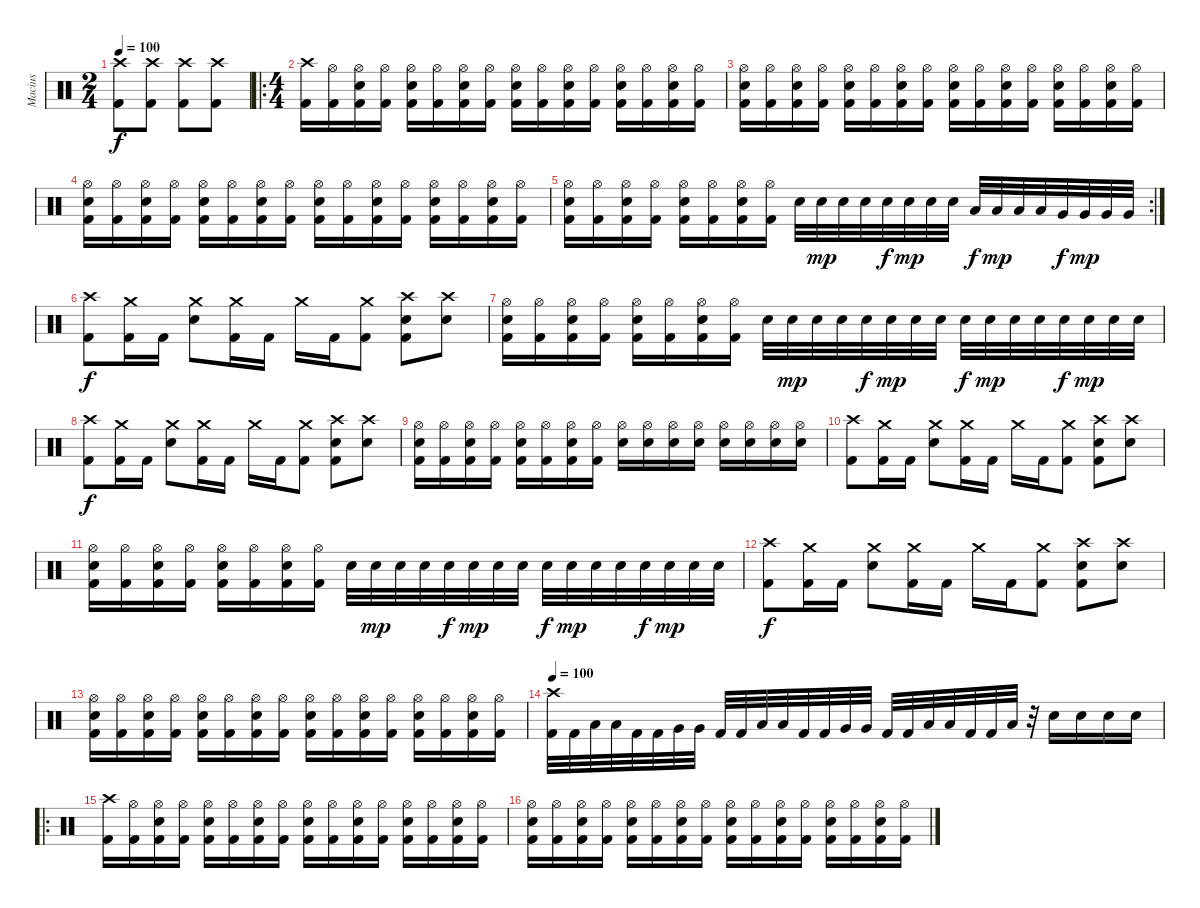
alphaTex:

\track ("Macius" "Macius") {instrument percussion}
\staff {score}
\articulation defaults
\ts (2 4)
\tempo 100
\clef neutral
\ks c
("Crash high (hit)" "Kick (hit) 2").8{dy f} ("Crash high (hit)" "Kick (hit) 2").8 ("Crash high (hit)" "Kick (hit) 2").8 ("Crash high (hit)" "Kick (hit) 2").8 |
\ro
\ts (4 4)
("Crash high (hit)" "Kick (hit) 2").16 ("Hi-Hat (open)" "Kick (hit) 2").16 ("Hi-Hat (open)" "Electric Snare (hit)" "Kick (hit) 2").16 ("Hi-Hat (open)" "Kick (hit) 2").16 ("Hi-Hat (open)" "Electric Snare (hit)" "Kick (hit) 2").16 ("Hi-Hat (open)" "Kick (hit) 2").16 ("Hi-Hat (open)" "Electric Snare (hit)" "Kick (hit) 2").16 ("Hi-Hat (open)" "Kick (hit) 2").16 ("Hi-Hat (open)" "Electric Snare (hit)" "Kick (hit) 2").16 ("Hi-Hat (open)" "Kick (hit) 2").16 ("Hi-Hat (open)" "Electric Snare (hit)" "Kick (hit) 2").16 ("Hi-Hat (open)" "Kick (hit) 2").16 ("Hi-Hat (open)" "Electric Snare (hit)" "Kick (hit) 2").16 ("Hi-Hat (open)" "Kick (hit) 2").16 ("Hi-Hat (open)" "Electric Snare (hit)" "Kick (hit) 2").16 ("Hi-Hat (open)" "Kick (hit) 2").16 |
("Hi-Hat (open)" "Electric Snare (hit)" "Kick (hit) 2").16 ("Hi-Hat (open)" "Kick (hit) 2").16 ("Hi-Hat (open)" "Electric Snare (hit)" "Kick (hit) 2").16 ("Hi-Hat (open)" "Kick (hit) 2").16 ("Hi-Hat (open)" "Electric Snare (hit)" "Kick (hit) 2").16 ("Hi-Hat (open)" "Kick (hit) 2").16 ("Hi-Hat (open)" "Electric Snare (hit)" "Kick (hit) 2").16 ("Hi-Hat (open)" "Kick (hit) 2").16 ("Hi-Hat (open)" "Electric Snare (hit)" "Kick (hit) 2").16 ("Hi-Hat (open)" "Kick (hit) 2").16 ("Hi-Hat (open)" "Electric Snare (hit)" "Kick (hit) 2").16 ("Hi-Hat (open)" "Kick (hit) 2").16 ("Hi-Hat (open)" "Electric Snare (hit)" "Kick (hit) 2").16 ("Hi-Hat (open)" "Kick (hit) 2").16 ("Hi-Hat (open)" "Electric Snare (hit)" "Kick (hit) 2").16 ("Hi-Hat (open)" "Kick (hit) 2").16 |
("Hi-Hat (open)" "Electric Snare (hit)" "Kick (hit) 2").16 ("Hi-Hat (open)" "Kick (hit) 2").16 ("Hi-Hat (open)" "Electric Snare (hit)" "Kick (hit) 2").16 ("Hi-Hat (open)" "Kick (hit) 2").16 ("Hi-Hat (open)" "Electric Snare (hit)" "Kick (hit) 2").16 ("Hi-Hat (open)" "Kick (hit) 2").16 ("Hi-Hat (open)" "Electric Snare (hit)" "Kick (hit) 2").16 ("Hi-Hat (open)" "Kick (hit) 2").16 ("Hi-Hat (open)" "Electric Snare (hit)" "Kick (hit) 2").16 ("Hi-Hat (open)" "Kick (hit) 2").16 ("Hi-Hat (open)" "Electric Snare (hit)" "Kick (hit) 2").16 ("Hi-Hat (open)" "Kick (hit) 2").16 ("Hi-Hat (open)" "Electric Snare (hit)" "Kick (hit) 2").16 ("Hi-Hat (open)" "Kick (hit) 2").16 ("Hi-Hat (open)" "Electric Snare (hit)" "Kick (hit) 2").16 ("Hi-Hat (open)" "Kick (hit) 2").16 |
\rc 2
("Hi-Hat (open)" "Electric Snare (hit)" "Kick (hit) 2").16 ("Hi-Hat (open)" "Kick (hit) 2").16 ("Hi-Hat (open)" "Electric Snare (hit)" "Kick (hit) 2").16 ("Hi-Hat (open)" "Kick (hit) 2").16 ("Hi-Hat (open)" "Electric Snare (hit)" "Kick (hit) 2").16 ("Hi-Hat (open)" "Kick (hit) 2").16 ("Hi-Hat (open)" "Electric Snare (hit)" "Kick (hit) 2").16 ("Hi-Hat (open)" "Kick (hit) 2").16 "Electric Snare (hit)".32 "Electric Snare (hit)".32{dy mp} "Electric Snare (hit)".32 "Electric Snare (hit)".32 "Electric Snare (hit)".32{dy f} "Electric Snare (hit)".32{dy mp} "Electric Snare (hit)".32 "Electric Snare (hit)".32 "Low Tom (hit)".32{dy f} "Low Tom (hit)".32{dy mp} "Low Tom (hit)".32 "Low Tom (hit)".32 "Very Low Tom (hit)".32{dy f} "Very Low Tom (hit)".32{dy mp} "Very Low Tom (hit)".32 "Very Low Tom (hit)".32 |
("Crash high (hit)" "Kick (hit) 2").8{dy f} ("Crash medium (hit)" "Kick (hit) 2").16 "Kick (hit) 2".16 ("Crash medium (hit)" "Electric Snare (hit)").8 ("Crash medium (hit)" "Kick (hit) 2").16 "Kick (hit) 2".16 "Crash medium (hit)".16 "Kick (hit) 2".16 ("Crash medium (hit)" "Kick (hit) 2").8 ("Crash high (hit)" "Electric Snare (hit)" "Kick (hit) 2").8 ("Crash high (hit)" "Electric Snare (hit)").8 |
("Hi-Hat (open)" "Electric Snare (hit)" "Kick (hit) 2").16 ("Hi-Hat (open)" "Kick (hit) 2").16 ("Hi-Hat (open)" "Electric Snare (hit)" "Kick (hit) 2").16 ("Hi-Hat (open)" "Kick (hit) 2").16 ("Hi-Hat (open)" "Electric Snare (hit)" "Kick (hit) 2").16 ("Hi-Hat (open)" "Kick (hit) 2").16 ("Hi-Hat (open)" "Electric Snare (hit)" "Kick (hit) 2").16 ("Hi-Hat (open)" "Kick (hit) 2").16 "Electric Snare (hit)".32 "Electric Snare (hit)".32{dy mp} "Electric Snare (hit)".32 "Electric Snare (hit)".32 "Electric Snare (hit)".32{dy f} "Electric Snare (hit)".32{dy mp} "Electric Snare (hit)".32 "Electric Snare (hit)".32 "Electric Snare (hit)".32{dy f} "Electric Snare (hit)".32{dy mp} "Electric Snare (hit)".32 "Electric Snare (hit)".32 "Electric Snare (hit)".32{dy f} "Electric Snare (hit)".32{dy mp} "Electric Snare (hit)".32 "Electric Snare (hit)".32 |
("Crash high (hit)" "Kick (hit) 2").8{dy f} ("Crash medium (hit)" "Kick (hit) 2").16 "Kick (hit) 2".16 ("Crash medium (hit)" "Electric Snare (hit)").8 ("Crash medium (hit)" "Kick (hit) 2").16 "Kick (hit) 2".16 "Crash medium (hit)".16 "Kick (hit) 2".16 ("Crash medium (hit)" "Kick (hit) 2").8 ("Crash high (hit)" "Electric Snare (hit)" "Kick (hit) 2").8 ("Crash high (hit)" "Electric Snare (hit)").8 |
("Hi-Hat (open)" "Electric Snare (hit)" "Kick (hit) 2").16 ("Hi-Hat (open)" "Kick (hit) 2").16 ("Hi-Hat (open)" "Electric Snare (hit)" "Kick (hit) 2").16 ("Hi-Hat (open)" "Kick (hit) 2").16 ("Hi-Hat (open)" "Electric Snare (hit)" "Kick (hit) 2").16 ("Hi-Hat (open)" "Kick (hit) 2").16 ("Hi-Hat (open)" "Electric Snare (hit)" "Kick (hit) 2").16 ("Hi-Hat (open)" "Kick (hit) 2").16 ("Hi-Hat (open)" "Electric Snare (hit)").16 ("Hi-Hat (open)" "Electric Snare (hit)").16 ("Hi-Hat (open)" "Electric Snare (hit)").16 ("Hi-Hat (open)" "Electric Snare (hit)").16 ("Hi-Hat (open)" "Electric Snare (hit)").16 ("Hi-Hat (open)" "Electric Snare (hit)").16 ("Hi-Hat (open)" "Electric Snare (hit)").16 ("Hi-Hat (open)" "Electric Snare (hit)").16 |
("Crash high (hit)" "Kick (hit) 2").8 ("Crash medium (hit)" "Kick (hit) 2").16 "Kick (hit) 2".16 ("Crash medium (hit)" "Electric Snare (hit)").8 ("Crash medium (hit)" "Kick (hit) 2").16 "Kick (hit) 2".16 "Crash medium (hit)".16 "Kick (hit) 2".16 ("Crash medium (hit)" "Kick (hit) 2").8 ("Crash high (hit)" "Electric Snare (hit)" "Kick (hit) 2").8 ("Crash high (hit)" "Electric Snare (hit)").8 |
("Hi-Hat (open)" "Electric Snare (hit)" "Kick (hit) 2").16 ("Hi-Hat (open)" "Kick (hit) 2").16 ("Hi-Hat (open)" "Electric Snare (hit)" "Kick (hit) 2").16 ("Hi-Hat (open)" "Kick (hit) 2").16 ("Hi-Hat (open)" "Electric Snare (hit)" "Kick (hit) 2").16 ("Hi-Hat (open)" "Kick (hit) 2").16 ("Hi-Hat (open)" "Electric Snare (hit)" "Kick (hit) 2").16 ("Hi-Hat (open)" "Kick (hit) 2").16 "Electric Snare (hit)".32 "Electric Snare (hit)".32{dy mp} "Electric Snare (hit)".32 "Electric Snare (hit)".32 "Electric Snare (hit)".32{dy f} "Electric Snare (hit)".32{dy mp} "Electric Snare (hit)".32 "Electric Snare (hit)".32 "Electric Snare (hit)".32{dy f} "Electric Snare (hit)".32{dy mp} "Electric Snare (hit)".32 "Electric Snare (hit)".32 "Electric Snare (hit)".32{dy f} "Electric Snare (hit)".32{dy mp} "Electric Snare (hit)".32 "Electric Snare (hit)".32 |
("Crash high (hit)" "Kick (hit) 2").8{dy f} ("Crash medium (hit)" "Kick (hit) 2").16 "Kick (hit) 2".16 ("Crash medium (hit)" "Electric Snare (hit)").8 ("Crash medium (hit)" "Kick (hit) 2").16 "Kick (hit) 2".16 "Crash medium (hit)".16 "Kick (hit) 2".16 ("Crash medium (hit)" "Kick (hit) 2").8 ("Crash high (hit)" "Electric Snare (hit)" "Kick (hit) 2").8 ("Crash high (hit)" "Electric Snare (hit)").8 |
("Hi-Hat (open)" "Electric Snare (hit)" "Kick (hit) 2").16 ("Hi-Hat (open)" "Kick (hit) 2").16 ("Hi-Hat (open)" "Electric Snare (hit)" "Kick (hit) 2").16 ("Hi-Hat (open)" "Kick (hit) 2").16 ("Hi-Hat (open)" "Electric Snare (hit)" "Kick (hit) 2").16 ("Hi-Hat (open)" "Kick (hit) 2").16 ("Hi-Hat (open)" "Electric Snare (hit)" "Kick (hit) 2").16 ("Hi-Hat (open)" "Kick (hit) 2").16 ("Hi-Hat (open)" "Electric Snare (hit)" "Kick (hit) 2").16 ("Hi-Hat (open)" "Kick (hit) 2").16 ("Hi-Hat (open)" "Electric Snare (hit)" "Kick (hit) 2").16 ("Hi-Hat (open)" "Kick (hit) 2").16 ("Hi-Hat (open)" "Electric Snare (hit)" "Kick (hit) 2").16 ("Hi-Hat (open)" "Kick (hit) 2").16 ("Hi-Hat (open)" "Electric Snare (hit)" "Kick (hit) 2").16 ("Hi-Hat (open)" "Kick (hit) 2").16 |
\tempo 100
("Crash high (hit)" "Kick (hit) 2").32 "Kick (hit) 2".32 "Low Tom (hit)".32 "Low Tom (hit)".32 "Kick (hit) 2".32 "Kick (hit) 2".32 "Very Low Tom (hit)".32 "Very Low Tom (hit)".32 "Kick (hit) 2".32 "Kick (hit) 2".32 "Low Tom (hit)".32 "Low Tom (hit)".32 "Kick (hit) 2".32 "Kick (hit) 2".32 "Very Low Tom (hit)".32 "Very Low Tom (hit)".32 "Kick (hit) 2".32 "Kick (hit) 2".32 "Low Tom (hit)".32 "Low Tom (hit)".32 "Kick (hit) 2".32 "Kick (hit) 2".32 "Low Tom (hit)".32 r.32 "Electric Snare (hit)".16 "Electric Snare (hit)".16 "Electric Snare (hit)".16 "Electric Snare (hit)".16 |
\ro
("Crash high (hit)" "Kick (hit) 2").16 ("Hi-Hat (open)" "Kick (hit) 2").16 ("Hi-Hat (open)" "Electric Snare (hit)" "Kick (hit) 2").16 ("Hi-Hat (open)" "Kick (hit) 2").16 ("Hi-Hat (open)" "Electric Snare (hit)" "Kick (hit) 2").16 ("Hi-Hat (open)" "Kick (hit) 2").16 ("Hi-Hat (open)" "Electric Snare (hit)" "Kick (hit) 2").16 ("Hi-Hat (open)" "Kick (hit) 2").16 ("Hi-Hat (open)" "Electric Snare (hit)" "Kick (hit) 2").16 ("Hi-Hat (open)" "Kick (hit) 2").16 ("Hi-Hat (open)" "Electric Snare (hit)" "Kick (hit) 2").16 ("Hi-Hat (open)" "Kick (hit) 2").16 ("Hi-Hat (open)" "Electric Snare (hit)" "Kick (hit) 2").16 ("Hi-Hat (open)" "Kick (hit) 2").16 ("Hi-Hat (open)" "Electric Snare (hit)" "Kick (hit) 2").16 ("Hi-Hat (open)" "Kick (hit) 2").16 |
("Hi-Hat (open)" "Electric Snare (hit)" "Kick (hit) 2").16 ("Hi-Hat (open)" "Kick (hit) 2").16 ("Hi-Hat (open)" "Electric Snare (hit)" "Kick (hit) 2").16 ("Hi-Hat (open)" "Kick (hit) 2").16 ("Hi-Hat (open)" "Electric Snare (hit)" "Kick (hit) 2").16 ("Hi-Hat (open)" "Kick (hit) 2").16 ("Hi-Hat (open)" "Electric Snare (hit)" "Kick (hit) 2").16 ("Hi-Hat (open)" "Kick (hit) 2").16 ("Hi-Hat (open)" "Electric Snare (hit)" "Kick (hit) 2").16 ("Hi-Hat (open)" "Kick (hit) 2").16 ("Hi-Hat (open)" "Electric Snare (hit)" "Kick (hit) 2").16 ("Hi-Hat (open)" "Kick (hit) 2").16 ("Hi-Hat (open)" "Electric Snare (hit)" "Kick (hit) 2").16 ("Hi-Hat (open)" "Kick (hit) 2").16 ("Hi-Hat (open)" "Electric Snare (hit)" "Kick (hit) 2").16 ("Hi-Hat (open)" "Kick (hit) 2").16
